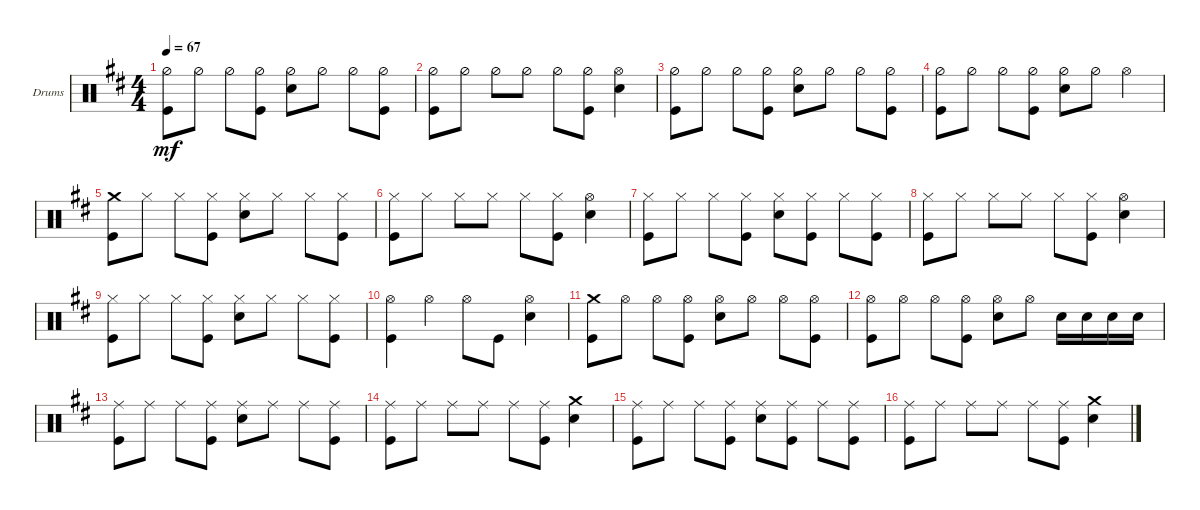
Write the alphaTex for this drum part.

\defaultSystemsLayout 4
\bracketExtendMode groupsimilarinstruments
\firstSystemTrackNameOrientation horizontal
\otherSystemsTrackNameOrientation horizontal
\track ("Drumkit" "Drums") {instrument percussion}
\staff {score}
\articulation defaults
\ts (4 4)
\tempo 67
\clef neutral
\scale
0.333333
\ks d
("Kick (hit)" "Hi-Hat (half)").8{dy mf} "Hi-Hat (half)".8 "Hi-Hat (half)".8 ("Kick (hit)" "Hi-Hat (half)").8 ("Snare (hit) 2" "Hi-Hat (half)").8 "Hi-Hat (half)".8 "Hi-Hat (half)".8 ("Kick (hit)" "Hi-Hat (half)").8 |
\scale
0.333333 ("Kick (hit)" "Hi-Hat (half)").8 "Hi-Hat (half)".8 "Hi-Hat (half)".8 "Hi-Hat (half)".8 "Hi-Hat (half)".8 ("Kick (hit)" "Hi-Hat (half)").8 ("Snare (hit) 2" "Hi-Hat (open)").4 |
\scale
0.333333 ("Kick (hit)" "Hi-Hat (half)").8 "Hi-Hat (half)".8 "Hi-Hat (half)".8 ("Kick (hit)" "Hi-Hat (half)").8 ("Snare (hit) 2" "Hi-Hat (half)").8 "Hi-Hat (half)".8 "Hi-Hat (half)".8 ("Hi-Hat (half)" "Kick (hit)").8 |
\scale
0.333333 ("Kick (hit)" "Hi-Hat (half)").8 "Hi-Hat (half)".8 "Hi-Hat (half)".8 ("Hi-Hat (half)" "Kick (hit)").8 ("Hi-Hat (half)" "Snare (hit) 2").8 "Hi-Hat (half)".8 "Hi-Hat (open)".4 |
\scale
0.333333 ("Crash medium (hit)" "Kick (hit)").8 "Hi-Hat (closed)".8 "Hi-Hat (closed)".8 ("Hi-Hat (closed)" "Kick (hit)").8 ("Hi-Hat (closed)" "Snare (hit) 2").8 "Hi-Hat (closed)".8 "Hi-Hat (closed)".8 ("Kick (hit)" "Hi-Hat (closed)").8 |
\scale
0.333333 ("Kick (hit)" "Hi-Hat (closed)").8 "Hi-Hat (closed)".8 "Hi-Hat (closed)".8 "Hi-Hat (closed)".8 "Hi-Hat (closed)".8 ("Kick (hit)" "Hi-Hat (closed)").8 ("Hi-Hat (open)" "Snare (hit) 2").4 |
\scale
0.333333 ("Kick (hit)" "Hi-Hat (closed)").8 "Hi-Hat (closed)".8 "Hi-Hat (closed)".8 ("Kick (hit)" "Hi-Hat (closed)").8 ("Snare (hit) 2" "Hi-Hat (closed)").8 ("Kick (hit)" "Hi-Hat (closed)").8 "Hi-Hat (closed)".8 ("Kick (hit)" "Hi-Hat (closed)").8 |
\scale
0.333333 ("Kick (hit)" "Hi-Hat (closed)").8 "Hi-Hat (closed)".8 "Hi-Hat (closed)".8 "Hi-Hat (closed)".8 "Hi-Hat (closed)".8 ("Kick (hit)" "Hi-Hat (closed)").8 ("Snare (hit) 2" "Hi-Hat (open)").4 |
\scale
0.333333 ("Kick (hit)" "Hi-Hat (closed)").8 "Hi-Hat (closed)".8 "Hi-Hat (closed)".8 ("Kick (hit)" "Hi-Hat (closed)").8 ("Snare (hit) 2" "Hi-Hat (closed)").8 "Hi-Hat (closed)".8 "Hi-Hat (closed)".8 ("Hi-Hat (closed)" "Kick (hit)").8 |
\scale
0.333333 ("Kick (hit)" "Hi-Hat (open)").4 "Hi-Hat (open)".4 "Hi-Hat (open)".8 "Kick (hit)".8 ("Snare (hit) 2" "Hi-Hat (open)").4 |
\scale
0.333333 ("Crash medium (hit)" "Kick (hit)").8 "Hi-Hat (open)".8 "Hi-Hat (open)".8 ("Kick (hit)" "Hi-Hat (open)").8 ("Snare (hit) 2" "Hi-Hat (open)").8 "Hi-Hat (open)".8 "Hi-Hat (open)".8 ("Kick (hit)" "Hi-Hat (open)").8 |
\scale
0.333333 ("Kick (hit)" "Hi-Hat (open)").8 "Hi-Hat (open)".8 "Hi-Hat (open)".8 ("Kick (hit)" "Hi-Hat (open)").8 ("Snare (hit) 2" "Hi-Hat (open)").8 "Hi-Hat (open)".8 "Snare (hit) 2".16 "Snare (hit) 2".16 "Snare (hit) 2".16 "Snare (hit) 2".16 |
\scale
0.333333 ("Ride (middle)" "Kick (hit)").8 "Ride (middle)".8 "Ride (middle)".8 ("Kick (hit)" "Ride (middle)").8 ("Snare (hit) 2" "Ride (middle)").8 "Ride (middle)".8 "Ride (middle)".8 ("Kick (hit)" "Ride (middle)").8 |
\scale
0.333333 ("Kick (hit)" "Ride (middle)").8 "Ride (middle)".8 "Ride (middle)".8 "Ride (middle)".8 "Ride (middle)".8 ("Kick (hit)" "Ride (middle)").8 ("Snare (hit) 2" "Crash medium (hit)").4 |
\scale
0.333333 ("Ride (middle)" "Kick (hit)").8 "Ride (middle)".8 "Ride (middle)".8 ("Kick (hit)" "Ride (middle)").8 ("Snare (hit) 2" "Ride (middle)").8 ("Ride (middle)" "Kick (hit)").8 "Ride (middle)".8 ("Kick (hit)" "Ride (middle)").8 |
\scale
0.333333 ("Kick (hit)" "Ride (middle)").8 "Ride (middle)".8 "Ride (middle)".8 "Ride (middle)".8 "Ride (middle)".8 ("Kick (hit)" "Ride (middle)").8 ("Snare (hit) 2" "Crash medium (hit)").4
